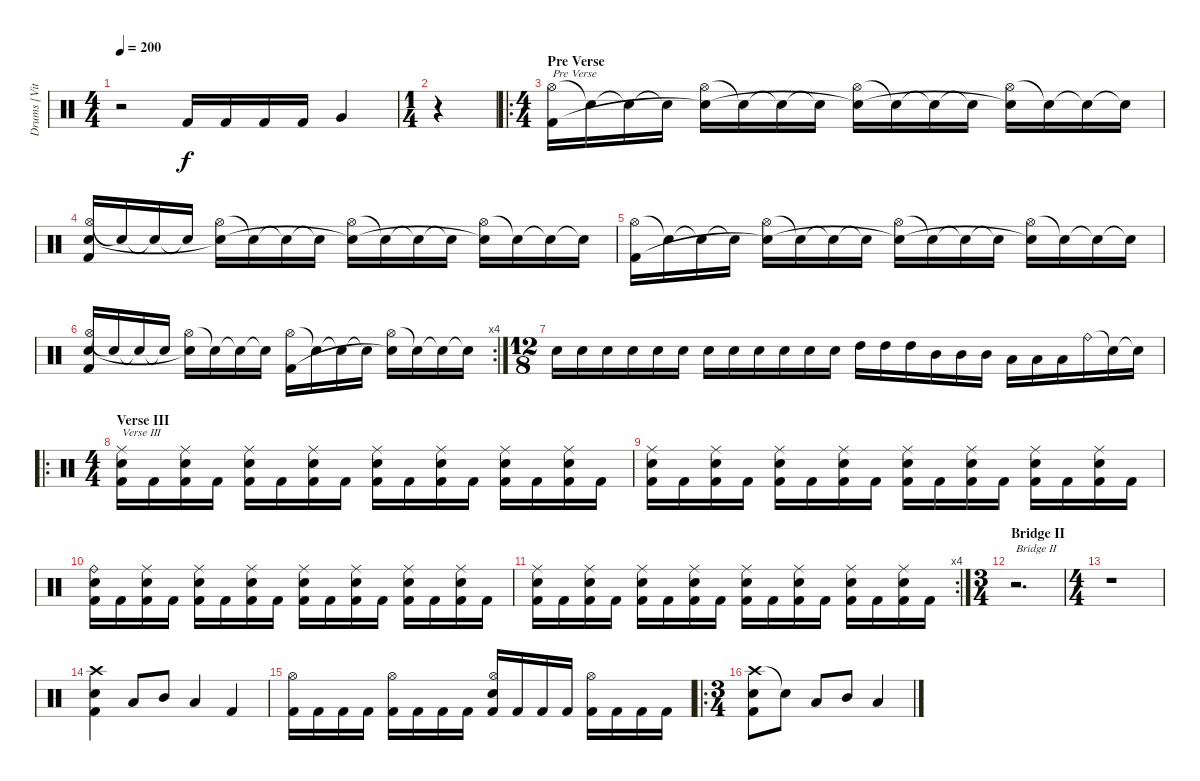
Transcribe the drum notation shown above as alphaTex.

\track ("Drums [Vitek]" "Drums [Vit") {instrument percussion}
\staff {score}
\articulation defaults
\ts (4 4)
\tempo 200
\clef neutral
\ks c
r.2{dy f} "Kick (hit) 2".16 "Kick (hit) 2".16 "Kick (hit) 2".16 "Kick (hit) 2".16 "Very Low Tom (hit)".4 |
\ts (1 4)
r.4 |
\ro
\ts (4 4)
\section ("" "Pre Verse")
("Hi-Hat (open)" "Kick (hit) 2").16{txt "Pre Verse"} "Snare (hit)"{t}.16 "Snare (hit)"{t}.16 "Snare (hit)"{t}.16 ("Hi-Hat (open)" "Snare (hit)"{t}).16 "Snare (hit)"{t}.16 "Snare (hit)"{t}.16 "Snare (hit)"{t}.16 ("Hi-Hat (open)" "Snare (hit)"{t}).16 "Snare (hit)"{t}.16 "Snare (hit)"{t}.16 "Snare (hit)"{t}.16 ("Hi-Hat (open)" "Snare (hit)"{t}).16 "Snare (hit)"{t}.16 "Snare (hit)"{t}.16 "Snare (hit)"{t}.16 |
("Hi-Hat (open)" "Electric Snare (hit)" "Kick (hit) 2").16 "Snare (hit)"{t}.16 "Snare (hit)"{t}.16 "Snare (hit)"{t}.16 ("Hi-Hat (open)" "Snare (hit)"{t}).16 "Snare (hit)"{t}.16 "Snare (hit)"{t}.16 "Snare (hit)"{t}.16 ("Hi-Hat (open)" "Snare (hit)"{t}).16 "Snare (hit)"{t}.16 "Snare (hit)"{t}.16 "Snare (hit)"{t}.16 ("Hi-Hat (open)" "Snare (hit)"{t}).16 "Snare (hit)"{t}.16 "Snare (hit)"{t}.16 "Snare (hit)"{t}.16 |
("Hi-Hat (open)" "Kick (hit) 2").16 "Snare (hit)"{t}.16 "Snare (hit)"{t}.16 "Snare (hit)"{t}.16 ("Hi-Hat (open)" "Snare (hit)"{t}).16 "Snare (hit)"{t}.16 "Snare (hit)"{t}.16 "Snare (hit)"{t}.16 ("Hi-Hat (open)" "Snare (hit)"{t}).16 "Snare (hit)"{t}.16 "Snare (hit)"{t}.16 "Snare (hit)"{t}.16 ("Hi-Hat (open)" "Snare (hit)"{t}).16 "Snare (hit)"{t}.16 "Snare (hit)"{t}.16 "Snare (hit)"{t}.16 |
\rc 4
("Hi-Hat (open)" "Electric Snare (hit)" "Kick (hit) 2").16 "Snare (hit)"{t}.16 "Snare (hit)"{t}.16 "Snare (hit)"{t}.16 ("Hi-Hat (open)" "Snare (hit)"{t}).16 "Snare (hit)"{t}.16 "Snare (hit)"{t}.16 "Snare (hit)"{t}.16 ("Hi-Hat (open)" "Kick (hit) 2").16 "Snare (hit)"{t}.16 "Snare (hit)"{t}.16 "Snare (hit)"{t}.16 ("Hi-Hat (open)" "Snare (hit)"{t}).16 "Snare (hit)"{t}.16 "Snare (hit)"{t}.16 "Snare (hit)"{t}.16 |
\ts (12 8)
"Electric Snare (hit)".16 "Electric Snare (hit)".16 "Electric Snare (hit)".16 "Electric Snare (hit)".16 "Electric Snare (hit)".16 "Electric Snare (hit)".16 "Electric Snare (hit)".16 "Electric Snare (hit)".16 "Electric Snare (hit)".16 "Electric Snare (hit)".16 "Electric Snare (hit)".16 "Electric Snare (hit)".16 "High Tom (hit)".16 "High Tom (hit)".16 "High Tom (hit)".16 "Mid Tom (hit)".16 "Mid Tom (hit)".16 "Mid Tom (hit)".16 "Low Tom (hit)".16 "Low Tom (hit)".16 "Low Tom (hit)".16 "Ride (bell)".16 "Snare (hit)"{t}.16 "Snare (hit)"{t}.16 |
\ro
\ts (4 4)
\section ("" "Verse III")
("Ride (middle)" "Electric Snare (hit)" "Kick (hit) 2").16{txt "Verse III"} "Kick (hit) 2".16 ("Ride (middle)" "Electric Snare (hit)" "Kick (hit) 2").16 "Kick (hit) 2".16 ("Ride (middle)" "Electric Snare (hit)" "Kick (hit) 2").16 "Kick (hit) 2".16 ("Ride (middle)" "Electric Snare (hit)" "Kick (hit) 2").16 "Kick (hit) 2".16 ("Ride (middle)" "Electric Snare (hit)" "Kick (hit) 2").16 "Kick (hit) 2".16 ("Ride (middle)" "Electric Snare (hit)" "Kick (hit) 2").16 "Kick (hit) 2".16 ("Ride (middle)" "Electric Snare (hit)" "Kick (hit) 2").16 "Kick (hit) 2".16 ("Ride (middle)" "Electric Snare (hit)" "Kick (hit) 2").16 "Kick (hit) 2".16 |
("Ride (middle)" "Electric Snare (hit)" "Kick (hit) 2").16 "Kick (hit) 2".16 ("Ride (middle)" "Electric Snare (hit)" "Kick (hit) 2").16 "Kick (hit) 2".16 ("Ride (middle)" "Electric Snare (hit)" "Kick (hit) 2").16 "Kick (hit) 2".16 ("Ride (middle)" "Electric Snare (hit)" "Kick (hit) 2").16 "Kick (hit) 2".16 ("Ride (middle)" "Electric Snare (hit)" "Kick (hit) 2").16 "Kick (hit) 2".16 ("Ride (middle)" "Electric Snare (hit)" "Kick (hit) 2").16 "Kick (hit) 2".16 ("Ride (middle)" "Electric Snare (hit)" "Kick (hit) 2").16 "Kick (hit) 2".16 ("Ride (middle)" "Electric Snare (hit)" "Kick (hit) 2").16 "Kick (hit) 2".16 |
("Ride (bell)" "Electric Snare (hit)" "Kick (hit) 2").16 "Kick (hit) 2".16 ("Ride (middle)" "Electric Snare (hit)" "Kick (hit) 2").16 "Kick (hit) 2".16 ("Ride (middle)" "Electric Snare (hit)" "Kick (hit) 2").16 "Kick (hit) 2".16 ("Ride (middle)" "Electric Snare (hit)" "Kick (hit) 2").16 "Kick (hit) 2".16 ("Ride (middle)" "Electric Snare (hit)" "Kick (hit) 2").16 "Kick (hit) 2".16 ("Ride (middle)" "Electric Snare (hit)" "Kick (hit) 2").16 "Kick (hit) 2".16 ("Ride (middle)" "Electric Snare (hit)" "Kick (hit) 2").16 "Kick (hit) 2".16 ("Ride (middle)" "Electric Snare (hit)" "Kick (hit) 2").16 "Kick (hit) 2".16 |
\rc 4
("Ride (middle)" "Electric Snare (hit)" "Kick (hit) 2").16 "Kick (hit) 2".16 ("Ride (middle)" "Electric Snare (hit)" "Kick (hit) 2").16 "Kick (hit) 2".16 ("Ride (middle)" "Electric Snare (hit)" "Kick (hit) 2").16 "Kick (hit) 2".16 ("Ride (middle)" "Electric Snare (hit)" "Kick (hit) 2").16 "Kick (hit) 2".16 ("Ride (middle)" "Electric Snare (hit)" "Kick (hit) 2").16 "Kick (hit) 2".16 ("Ride (middle)" "Electric Snare (hit)" "Kick (hit) 2").16 "Kick (hit) 2".16 ("Ride (middle)" "Electric Snare (hit)" "Kick (hit) 2").16 "Kick (hit) 2".16 ("Ride (middle)" "Electric Snare (hit)" "Kick (hit) 2").16 "Kick (hit) 2".16 |
\ts (3 4)
\section ("" "Bridge II")
r.2{d txt "Bridge II"} |
\ts (4 4)
r.1 |
("Crash high (hit)" "Electric Snare (hit)" "Kick (hit) 2").4 "Low Tom (hit)".8 "Mid Tom (hit)".8 "Low Tom (hit)".4 "Kick (hit) 2".4 |
("Hi-Hat (open)" "Kick (hit) 2").16 "Kick (hit) 2".16 "Kick (hit) 2".16 "Kick (hit) 2".16 ("Hi-Hat (open)" "Kick (hit) 2").16 "Kick (hit) 2".16 "Kick (hit) 2".16 "Kick (hit) 2".16 ("Hi-Hat (open)" "Electric Snare (hit)" "Kick (hit) 2").16 "Kick (hit) 2".16 "Kick (hit) 2".16 "Kick (hit) 2".16 ("Hi-Hat (open)" "Kick (hit) 2").16 "Kick (hit) 2".16 "Kick (hit) 2".16 "Kick (hit) 2".16 |
\ro
\ts (3 4)
("Crash high (hit)" "Electric Snare (hit)" "Kick (hit) 2").8 "Snare (hit)"{t}.8 "Low Tom (hit)".8 "Mid Tom (hit)".8 "Low Tom (hit)".4
